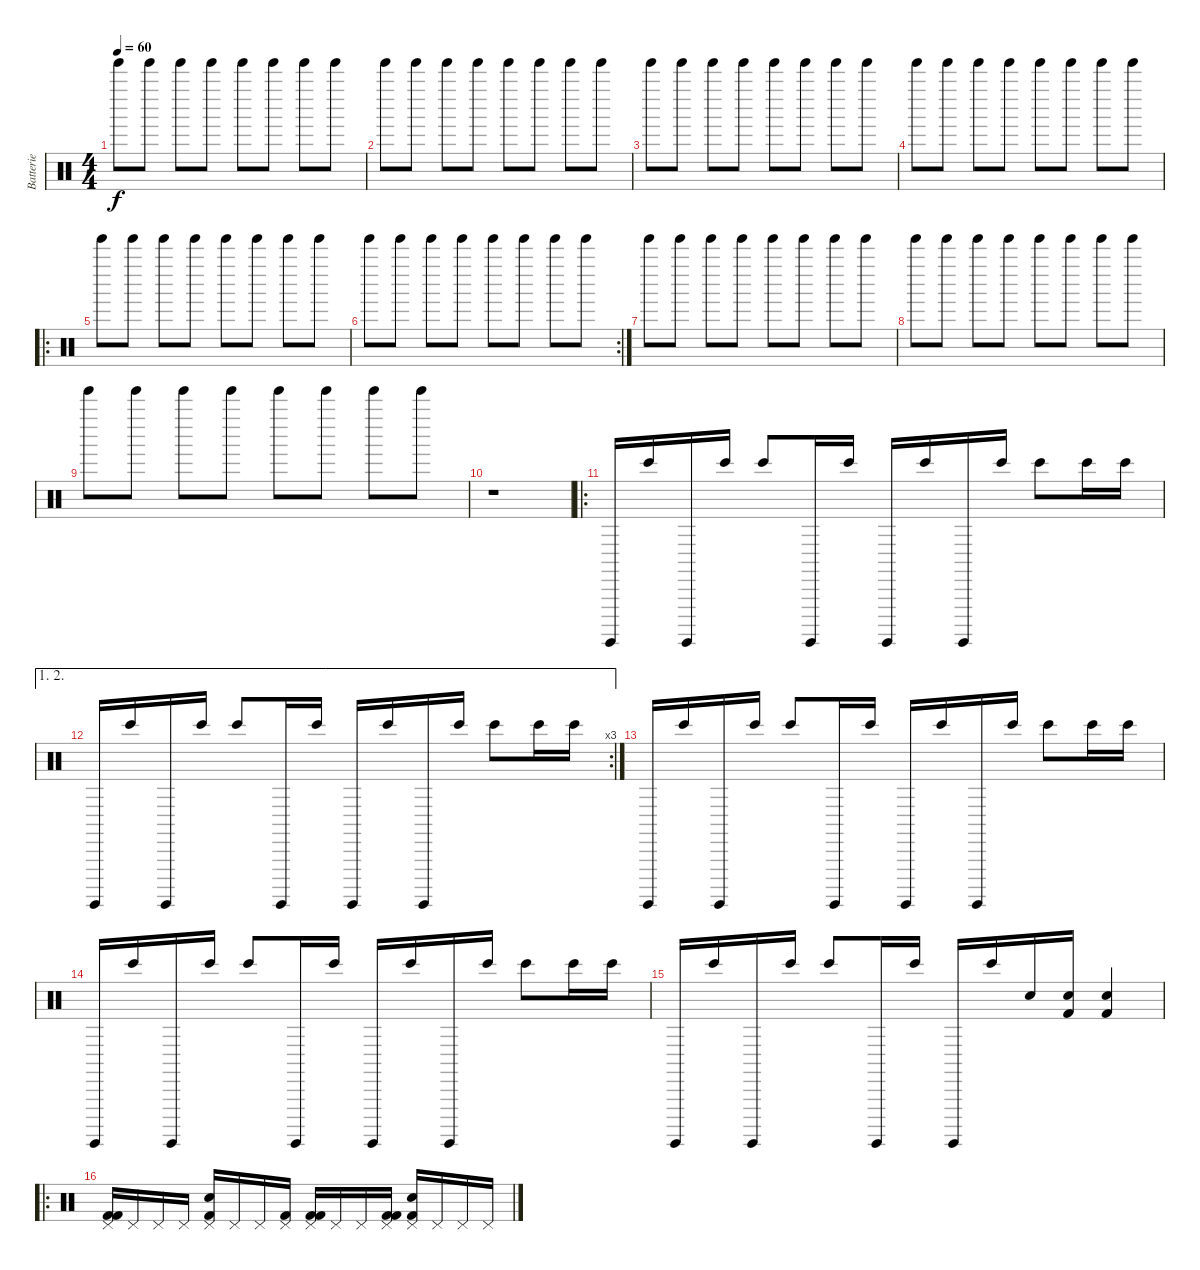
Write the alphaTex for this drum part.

\track ("Batterie" "Batterie") {instrument percussion}
\staff {score}
\articulation defaults
\ts (4 4)
\tempo 60
\clef neutral
\ks c "Tinkle Bell (hit)".8{dy f volume 8} "Tinkle Bell (hit)".8 "Tinkle Bell (hit)".8 "Tinkle Bell (hit)".8 "Tinkle Bell (hit)".8 "Tinkle Bell (hit)".8 "Tinkle Bell (hit)".8 "Tinkle Bell (hit)".8
|
"Tinkle Bell (hit)".8 "Tinkle Bell (hit)".8 "Tinkle Bell (hit)".8 "Tinkle Bell (hit)".8 "Tinkle Bell (hit)".8 "Tinkle Bell (hit)".8 "Tinkle Bell (hit)".8 "Tinkle Bell (hit)".8 |
"Tinkle Bell (hit)".8 "Tinkle Bell (hit)".8 "Tinkle Bell (hit)".8 "Tinkle Bell (hit)".8 "Tinkle Bell (hit)".8 "Tinkle Bell (hit)".8 "Tinkle Bell (hit)".8 "Tinkle Bell (hit)".8 |
"Tinkle Bell (hit)".8 "Tinkle Bell (hit)".8 "Tinkle Bell (hit)".8 "Tinkle Bell (hit)".8 "Tinkle Bell (hit)".8 "Tinkle Bell (hit)".8 "Tinkle Bell (hit)".8 "Tinkle Bell (hit)".8 |
\ro "Tinkle Bell (hit)".8 "Tinkle Bell (hit)".8 "Tinkle Bell (hit)".8 "Tinkle Bell (hit)".8 "Tinkle Bell (hit)".8 "Tinkle Bell (hit)".8 "Tinkle Bell (hit)".8 "Tinkle Bell (hit)".8
|
\rc 2 "Tinkle Bell (hit)".8 "Tinkle Bell (hit)".8 "Tinkle Bell (hit)".8 "Tinkle Bell (hit)".8 "Tinkle Bell (hit)".8 "Tinkle Bell (hit)".8 "Tinkle Bell (hit)".8 "Tinkle Bell (hit)".8
|
"Tinkle Bell (hit)".8 "Tinkle Bell (hit)".8 "Tinkle Bell (hit)".8 "Tinkle Bell (hit)".8 "Tinkle Bell (hit)".8 "Tinkle Bell (hit)".8 "Tinkle Bell (hit)".8 "Tinkle Bell (hit)".8 |
"Tinkle Bell (hit)".8 "Tinkle Bell (hit)".8 "Tinkle Bell (hit)".8 "Tinkle Bell (hit)".8 "Tinkle Bell (hit)".8 "Tinkle Bell (hit)".8 "Tinkle Bell (hit)".8 "Tinkle Bell (hit)".8 |
"Tinkle Bell (hit)".8 "Tinkle Bell (hit)".8 "Tinkle Bell (hit)".8 "Tinkle Bell (hit)".8 "Tinkle Bell (hit)".8 "Tinkle Bell (hit)".8 "Tinkle Bell (hit)".8 "Tinkle Bell (hit)".8 |
r.1{volume 12} |
\ro "Surdo (hit)".16 "Bongo High (hit)".16 "Surdo (hit)".16 "Bongo High (hit)".16 "Bongo High (hit)".8 "Surdo (hit)".16 "Bongo High (hit)".16 "Surdo (hit)".16 "Bongo High (hit)".16 "Surdo (hit)".16 "Bongo High (hit)".16 "Bongo High (hit)".8 "Bongo High (hit)".16 "Bongo High (hit)".16
|
\ae (1 2)
\rc 3 "Surdo (hit)".16 "Bongo High (hit)".16 "Surdo (hit)".16 "Bongo High (hit)".16 "Bongo High (hit)".8 "Surdo (hit)".16 "Bongo High (hit)".16 "Surdo (hit)".16 "Bongo High (hit)".16 "Surdo (hit)".16 "Bongo High (hit)".16 "Bongo High (hit)".8 "Bongo High (hit)".16 "Bongo High (hit)".16
|
"Surdo (hit)".16 "Bongo High (hit)".16 "Surdo (hit)".16 "Bongo High (hit)".16 "Bongo High (hit)".8 "Surdo (hit)".16 "Bongo High (hit)".16 "Surdo (hit)".16 "Bongo High (hit)".16 "Surdo (hit)".16 "Bongo High (hit)".16 "Bongo High (hit)".8 "Bongo High (hit)".16 "Bongo High (hit)".16 |
"Surdo (hit)".16 "Bongo High (hit)".16 "Surdo (hit)".16 "Bongo High (hit)".16 "Bongo High (hit)".8 "Surdo (hit)".16 "Bongo High (hit)".16 "Surdo (hit)".16 "Bongo High (hit)".16 "Surdo (hit)".16 "Bongo High (hit)".16 "Bongo High (hit)".8 "Bongo High (hit)".16 "Bongo High (hit)".16 |
"Surdo (hit)".16 "Bongo High (hit)".16 "Surdo (hit)".16 "Bongo High (hit)".16 "Bongo High (hit)".8 "Surdo (hit)".16 "Bongo High (hit)".16 "Surdo (hit)".16 "Bongo High (hit)".16 "Snare (hit) 2".16{volume 16} ("Electric Snare (hit)" "Kick (hit) 2").16 ("Electric Snare (hit)" "Kick (hit) 2").4 |
\ro
("Pedal Hi-Hat (hit)" "Kick (hit) 2" "Kick (hit) 2").16 "Pedal Hi-Hat (hit)".16 "Pedal Hi-Hat (hit)".16 "Pedal Hi-Hat (hit)".16 ("Pedal Hi-Hat (hit)" "Electric Snare (hit)" "Kick (hit) 2").16 "Pedal Hi-Hat (hit)".16 "Pedal Hi-Hat (hit)".16 ("Pedal Hi-Hat (hit)" "Kick (hit) 2").16 ("Pedal Hi-Hat (hit)" "Kick (hit) 2" "Kick (hit) 2").16 "Pedal Hi-Hat (hit)".16 "Pedal Hi-Hat (hit)".16 ("Pedal Hi-Hat (hit)" "Kick (hit) 2" "Kick (hit) 2").16 ("Pedal Hi-Hat (hit)" "Electric Snare (hit)" "Kick (hit) 2").16 "Pedal Hi-Hat (hit)".16 "Pedal Hi-Hat (hit)".16 "Pedal Hi-Hat (hit)".16
